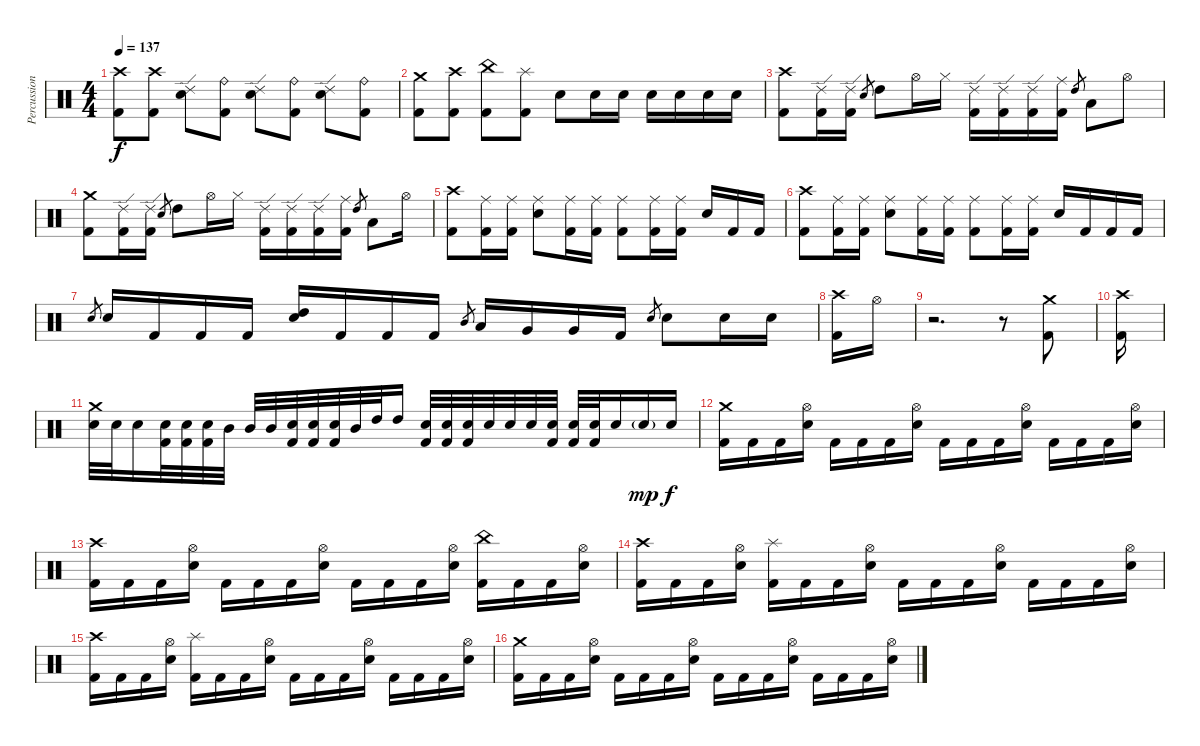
\track ("Percussion" "Percussion") {instrument percussion}
\staff {score}
\articulation defaults
\ts (4 4)
\tempo 137
\clef neutral
\ks c
("Crash high (hit)" "Kick (hit) 2").8{dy f} ("Crash high (hit)" "Kick (hit) 2").8 ("Ride (edge) 2" "Electric Snare (hit)").8 ("Ride (bell)" "Kick (hit) 2").8 ("Ride (edge) 2" "Electric Snare (hit)").8 ("Ride (bell)" "Kick (hit) 2").8 ("Ride (edge) 2" "Electric Snare (hit)").8 ("Ride (bell)" "Kick (hit) 2").8 |
("Crash medium (hit)" "Kick (hit) 2").8 ("Crash high (hit)" "Kick (hit) 2").8 ("China (hit)" "Kick (hit) 2").8 ("Splash (hit)" "Kick (hit) 2").8 "Electric Snare (hit)".8 "Electric Snare (hit)".16 "Electric Snare (hit)".16 "Electric Snare (hit)".16 "Electric Snare (hit)".16 "Electric Snare (hit)".16 "Electric Snare (hit)".16 |
("Crash high (hit)" "Kick (hit) 2").8 ("Ride (edge) 2" "Kick (hit) 2").16 ("Ride (edge) 2" "Kick (hit) 2").16 "Electric Snare (hit)".8{gr} "High Tom (hit)".8 "Hi-Hat (open)".16 "Hi-Hat (closed)".16 ("Ride (edge) 2" "Kick (hit) 2").16 ("Ride (edge) 2" "Kick (hit) 2").16 ("Ride (edge) 2" "Kick (hit) 2").16 ("Ride (middle)" "Kick (hit) 2").16 "High Tom (hit)".8{gr} "Low Tom (hit)".8 "Hi-Hat (open)".8 |
("Crash medium (hit)" "Kick (hit) 2").8 ("Ride (edge) 2" "Kick (hit) 2").16 ("Ride (edge) 2" "Kick (hit) 2").16 "Electric Snare (hit)".8{gr} "High Tom (hit)".8 "Hi-Hat (open)".16 "Hi-Hat (closed)".16 ("Ride (edge) 2" "Kick (hit) 2").16 ("Ride (edge) 2" "Kick (hit) 2").16 ("Ride (edge) 2" "Kick (hit) 2").16 ("Ride (middle)" "Kick (hit) 2").16 "High Tom (hit)".8{gr} "Low Tom (hit)".8 "Hi-Hat (open)".16 |
("Crash high (hit)" "Kick (hit) 2").8 ("Ride (middle)" "Kick (hit) 2").16 ("Ride (middle)" "Kick (hit) 2").16 ("Ride (middle)" "Electric Snare (hit)").8 ("Ride (middle)" "Kick (hit) 2").16 ("Ride (middle)" "Kick (hit) 2").16 ("Ride (middle)" "Kick (hit) 2").8 ("Ride (middle)" "Kick (hit) 2").16 ("Ride (middle)" "Kick (hit) 2").16 "Electric Snare (hit)".16 "Kick (hit) 2".16 "Kick (hit) 2".16 |
("Crash high (hit)" "Kick (hit) 2").8 ("Ride (middle)" "Kick (hit) 2").16 ("Ride (middle)" "Kick (hit) 2").16 ("Ride (middle)" "Electric Snare (hit)").8 ("Ride (middle)" "Kick (hit) 2").16 ("Ride (middle)" "Kick (hit) 2").16 ("Ride (middle)" "Kick (hit) 2").8 ("Ride (middle)" "Kick (hit) 2").16 ("Ride (middle)" "Kick (hit) 2").16 "Electric Snare (hit)".16 "Kick (hit) 2".16 "Kick (hit) 2".16 "Kick (hit) 2".16 |
"Electric Snare (hit)".8{gr} "Electric Snare (hit)".16 "Kick (hit) 2".16 "Kick (hit) 2".16 "Kick (hit) 2".16 ("High Tom (hit)" "Electric Snare (hit)").16 "Kick (hit) 2".16 "Kick (hit) 2".16 "Kick (hit) 2".16 "Mid Tom (hit)".8{gr} "Low Tom (hit)".16 "Very Low Tom (hit)".16 "Very Low Tom (hit)".16 "Kick (hit) 2".16 "Electric Snare (hit)".8{gr} "Electric Snare (hit)".8 "Electric Snare (hit)".16 "Electric Snare (hit)".16 |
("Crash high (hit)" "Kick (hit) 2").16 "Hi-Hat (open)".16 |
r.2{d} r.8 ("Crash medium (hit)" "Kick (hit) 2").8 |
("Crash high (hit)" "Kick (hit) 2").16 |
("Crash medium (hit)" "Electric Snare (hit)").32 "Electric Snare (hit)".32 "Electric Snare (hit)".16 ("Electric Snare (hit)" "Kick (hit) 2").32 ("Electric Snare (hit)" "Kick (hit) 2").32 ("Electric Snare (hit)" "Kick (hit) 2").32 "Mid Tom (hit)".32 "Mid Tom (hit)".32 "Mid Tom (hit)".32 ("Electric Snare (hit)" "Kick (hit) 2").32 ("Electric Snare (hit)" "Kick (hit) 2").32 ("Electric Snare (hit)" "Kick (hit) 2").32 "Mid Tom (hit)".32 "High Tom (hit)".32 "High Tom (hit)".16 ("Electric Snare (hit)" "Kick (hit) 2").32 ("Electric Snare (hit)" "Kick (hit) 2").32 ("Electric Snare (hit)" "Kick (hit) 2").32 "Electric Snare (hit)".32 "Electric Snare (hit)".32 "Electric Snare (hit)".32 ("Electric Snare (hit)" "Kick (hit) 2").32 ("Electric Snare (hit)" "Kick (hit) 2").32 ("Electric Snare (hit)" "Kick (hit) 2").32 "Electric Snare (hit)".16 "Electric Snare (hit)"{g}.16{dy mp} "Electric Snare (hit)".16{dy f} |
("Crash medium (hit)" "Kick (hit) 2").16 "Kick (hit) 2".16 "Kick (hit) 2".16 ("Hi-Hat (open)" "Electric Snare (hit)").16 "Kick (hit) 2".16 "Kick (hit) 2".16 "Kick (hit) 2".16 ("Hi-Hat (open)" "Electric Snare (hit)").16 "Kick (hit) 2".16 "Kick (hit) 2".16 "Kick (hit) 2".16 ("Hi-Hat (open)" "Electric Snare (hit)").16 "Kick (hit) 2".16 "Kick (hit) 2".16 "Kick (hit) 2".16 ("Hi-Hat (open)" "Electric Snare (hit)").16 |
("Crash high (hit)" "Kick (hit) 2").16 "Kick (hit) 2".16 "Kick (hit) 2".16 ("Hi-Hat (open)" "Electric Snare (hit)").16 "Kick (hit) 2".16 "Kick (hit) 2".16 "Kick (hit) 2".16 ("Hi-Hat (open)" "Electric Snare (hit)").16 "Kick (hit) 2".16 "Kick (hit) 2".16 "Kick (hit) 2".16 ("Hi-Hat (open)" "Electric Snare (hit)").16 ("China (hit)" "Kick (hit) 2").16 "Kick (hit) 2".16 "Kick (hit) 2".16 ("Hi-Hat (open)" "Electric Snare (hit)").16 |
("Crash high (hit)" "Kick (hit) 2").16 "Kick (hit) 2".16 "Kick (hit) 2".16 ("Hi-Hat (open)" "Electric Snare (hit)").16 ("Splash (hit)" "Kick (hit) 2").16 "Kick (hit) 2".16 "Kick (hit) 2".16 ("Hi-Hat (open)" "Electric Snare (hit)").16 "Kick (hit) 2".16 "Kick (hit) 2".16 "Kick (hit) 2".16 ("Hi-Hat (open)" "Electric Snare (hit)").16 "Kick (hit) 2".16 "Kick (hit) 2".16 "Kick (hit) 2".16 ("Hi-Hat (open)" "Electric Snare (hit)").16 |
("Crash high (hit)" "Kick (hit) 2").16 "Kick (hit) 2".16 "Kick (hit) 2".16 ("Hi-Hat (open)" "Electric Snare (hit)").16 ("Splash (hit)" "Kick (hit) 2").16 "Kick (hit) 2".16 "Kick (hit) 2".16 ("Hi-Hat (open)" "Electric Snare (hit)").16 "Kick (hit) 2".16 "Kick (hit) 2".16 "Kick (hit) 2".16 ("Hi-Hat (open)" "Electric Snare (hit)").16 "Kick (hit) 2".16 "Kick (hit) 2".16 "Kick (hit) 2".16 ("Hi-Hat (open)" "Electric Snare (hit)").16 |
("Crash medium (hit)" "Kick (hit) 2").16 "Kick (hit) 2".16 "Kick (hit) 2".16 ("Hi-Hat (open)" "Electric Snare (hit)").16 "Kick (hit) 2".16 "Kick (hit) 2".16 "Kick (hit) 2".16 ("Hi-Hat (open)" "Electric Snare (hit)").16 "Kick (hit) 2".16 "Kick (hit) 2".16 "Kick (hit) 2".16 ("Hi-Hat (open)" "Electric Snare (hit)").16 "Kick (hit) 2".16 "Kick (hit) 2".16 "Kick (hit) 2".16 ("Hi-Hat (open)" "Electric Snare (hit)").16
